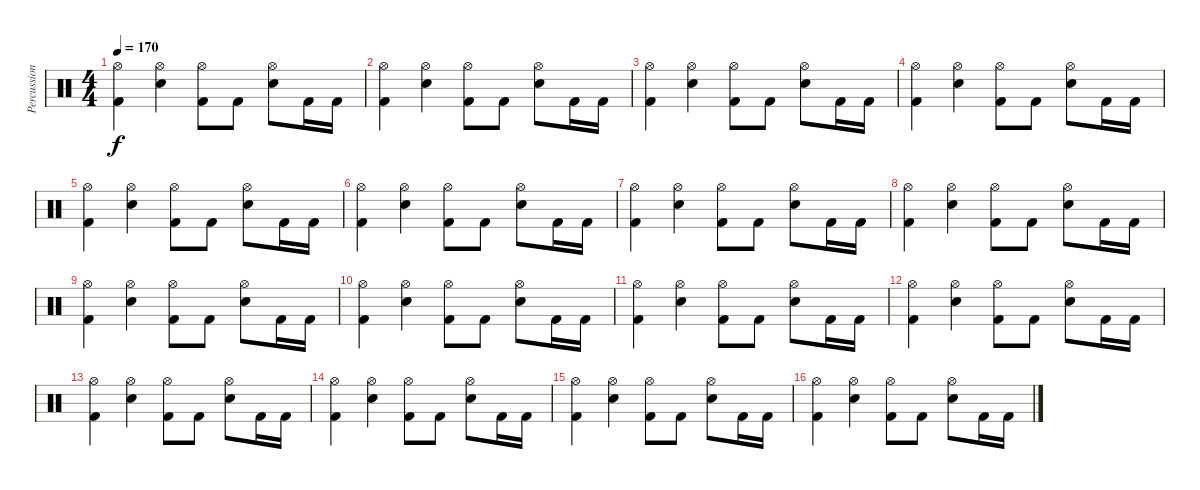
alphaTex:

\track ("Percussion - Who the fuck knows" "Percussion") {instrument percussion}
\staff {score}
\articulation defaults
\ts (4 4)
\tempo 170
\clef neutral
\ks c
("Kick (hit) 2" "Hi-Hat (open)").4{dy f} ("Hi-Hat (open)" "Snare (hit) 2").4 ("Hi-Hat (open)" "Kick (hit) 2").8 "Kick (hit) 2".8 ("Hi-Hat (open)" "Snare (hit) 2").8 "Kick (hit) 2".16 "Kick (hit) 2".16 |
("Kick (hit) 2" "Hi-Hat (open)").4 ("Hi-Hat (open)" "Snare (hit) 2").4 ("Hi-Hat (open)" "Kick (hit) 2").8 "Kick (hit) 2".8 ("Hi-Hat (open)" "Snare (hit) 2").8 "Kick (hit) 2".16 "Kick (hit) 2".16 |
("Kick (hit) 2" "Hi-Hat (open)").4 ("Hi-Hat (open)" "Snare (hit) 2").4 ("Hi-Hat (open)" "Kick (hit) 2").8 "Kick (hit) 2".8 ("Hi-Hat (open)" "Snare (hit) 2").8 "Kick (hit) 2".16 "Kick (hit) 2".16 |
("Kick (hit) 2" "Hi-Hat (open)").4 ("Hi-Hat (open)" "Snare (hit) 2").4 ("Hi-Hat (open)" "Kick (hit) 2").8 "Kick (hit) 2".8 ("Hi-Hat (open)" "Snare (hit) 2").8 "Kick (hit) 2".16 "Kick (hit) 2".16 |
("Kick (hit) 2" "Hi-Hat (open)").4 ("Hi-Hat (open)" "Snare (hit) 2").4 ("Hi-Hat (open)" "Kick (hit) 2").8 "Kick (hit) 2".8 ("Hi-Hat (open)" "Snare (hit) 2").8 "Kick (hit) 2".16 "Kick (hit) 2".16 |
("Kick (hit) 2" "Hi-Hat (open)").4 ("Hi-Hat (open)" "Snare (hit) 2").4 ("Hi-Hat (open)" "Kick (hit) 2").8 "Kick (hit) 2".8 ("Hi-Hat (open)" "Snare (hit) 2").8 "Kick (hit) 2".16 "Kick (hit) 2".16 |
("Kick (hit) 2" "Hi-Hat (open)").4 ("Hi-Hat (open)" "Snare (hit) 2").4 ("Hi-Hat (open)" "Kick (hit) 2").8 "Kick (hit) 2".8 ("Hi-Hat (open)" "Snare (hit) 2").8 "Kick (hit) 2".16 "Kick (hit) 2".16 |
("Kick (hit) 2" "Hi-Hat (open)").4 ("Hi-Hat (open)" "Snare (hit) 2").4 ("Hi-Hat (open)" "Kick (hit) 2").8 "Kick (hit) 2".8 ("Hi-Hat (open)" "Snare (hit) 2").8 "Kick (hit) 2".16 "Kick (hit) 2".16 |
("Kick (hit) 2" "Hi-Hat (open)").4 ("Hi-Hat (open)" "Snare (hit) 2").4 ("Hi-Hat (open)" "Kick (hit) 2").8 "Kick (hit) 2".8 ("Hi-Hat (open)" "Snare (hit) 2").8 "Kick (hit) 2".16 "Kick (hit) 2".16 |
("Kick (hit) 2" "Hi-Hat (open)").4 ("Hi-Hat (open)" "Snare (hit) 2").4 ("Hi-Hat (open)" "Kick (hit) 2").8 "Kick (hit) 2".8 ("Hi-Hat (open)" "Snare (hit) 2").8 "Kick (hit) 2".16 "Kick (hit) 2".16 |
("Kick (hit) 2" "Hi-Hat (open)").4 ("Hi-Hat (open)" "Snare (hit) 2").4 ("Hi-Hat (open)" "Kick (hit) 2").8 "Kick (hit) 2".8 ("Hi-Hat (open)" "Snare (hit) 2").8 "Kick (hit) 2".16 "Kick (hit) 2".16 |
("Kick (hit) 2" "Hi-Hat (open)").4 ("Hi-Hat (open)" "Snare (hit) 2").4 ("Hi-Hat (open)" "Kick (hit) 2").8 "Kick (hit) 2".8 ("Hi-Hat (open)" "Snare (hit) 2").8 "Kick (hit) 2".16 "Kick (hit) 2".16 |
("Kick (hit) 2" "Hi-Hat (open)").4 ("Hi-Hat (open)" "Snare (hit) 2").4 ("Hi-Hat (open)" "Kick (hit) 2").8 "Kick (hit) 2".8 ("Hi-Hat (open)" "Snare (hit) 2").8 "Kick (hit) 2".16 "Kick (hit) 2".16 |
("Kick (hit) 2" "Hi-Hat (open)").4 ("Hi-Hat (open)" "Snare (hit) 2").4 ("Hi-Hat (open)" "Kick (hit) 2").8 "Kick (hit) 2".8 ("Hi-Hat (open)" "Snare (hit) 2").8 "Kick (hit) 2".16 "Kick (hit) 2".16 |
("Kick (hit) 2" "Hi-Hat (open)").4 ("Hi-Hat (open)" "Snare (hit) 2").4 ("Hi-Hat (open)" "Kick (hit) 2").8 "Kick (hit) 2".8 ("Hi-Hat (open)" "Snare (hit) 2").8 "Kick (hit) 2".16 "Kick (hit) 2".16 |
("Kick (hit) 2" "Hi-Hat (open)").4 ("Hi-Hat (open)" "Snare (hit) 2").4 ("Hi-Hat (open)" "Kick (hit) 2").8 "Kick (hit) 2".8 ("Hi-Hat (open)" "Snare (hit) 2").8 "Kick (hit) 2".16 "Kick (hit) 2".16
